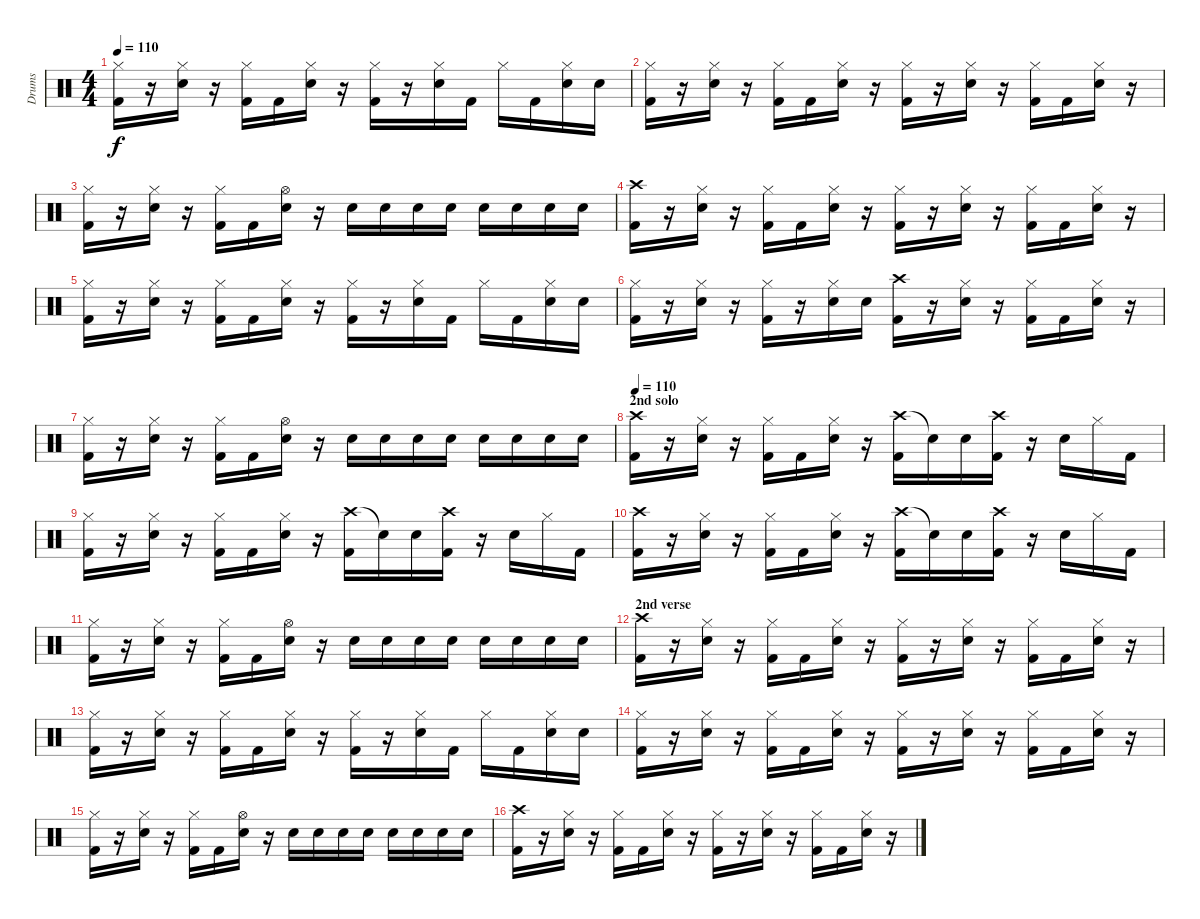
\track ("Drums" "Drums") {instrument percussion}
\staff {score}
\articulation defaults
\ts (4 4)
\tempo 110
\clef neutral
\ks c
("Hi-Hat (closed)" "Kick (hit) 2").16{dy f} r.16 ("Hi-Hat (closed)" "Electric Snare (hit)").16 r.16 ("Hi-Hat (closed)" "Kick (hit) 2").16 "Kick (hit) 2".16 ("Hi-Hat (closed)" "Electric Snare (hit)").16 r.16 ("Hi-Hat (closed)" "Kick (hit) 2").16 r.16 ("Hi-Hat (closed)" "Electric Snare (hit)").16 "Kick (hit) 2".16 "Hi-Hat (closed)".16 "Kick (hit) 2".16 ("Hi-Hat (closed)" "Electric Snare (hit)").16 "Electric Snare (hit)".16 |
("Hi-Hat (closed)" "Kick (hit) 2").16 r.16 ("Hi-Hat (closed)" "Electric Snare (hit)").16 r.16 ("Hi-Hat (closed)" "Kick (hit) 2").16 "Kick (hit) 2".16 ("Hi-Hat (closed)" "Electric Snare (hit)").16 r.16 ("Hi-Hat (closed)" "Kick (hit) 2").16 r.16 ("Hi-Hat (closed)" "Electric Snare (hit)").16 r.16 ("Hi-Hat (closed)" "Kick (hit) 2").16 "Kick (hit) 2".16 ("Hi-Hat (closed)" "Electric Snare (hit)").16 r.16 |
("Hi-Hat (closed)" "Kick (hit) 2").16 r.16 ("Hi-Hat (closed)" "Electric Snare (hit)").16 r.16 ("Hi-Hat (closed)" "Kick (hit) 2").16 "Kick (hit) 2".16 ("Hi-Hat (open)" "Electric Snare (hit)").16 r.16 "Electric Snare (hit)".16 "Electric Snare (hit)".16 "Electric Snare (hit)".16 "Electric Snare (hit)".16 "Electric Snare (hit)".16 "Electric Snare (hit)".16 "Electric Snare (hit)".16 "Electric Snare (hit)".16 |
("Crash high (hit)" "Kick (hit) 2").16 r.16 ("Hi-Hat (closed)" "Electric Snare (hit)").16 r.16 ("Hi-Hat (closed)" "Kick (hit) 2").16 "Kick (hit) 2".16 ("Hi-Hat (closed)" "Electric Snare (hit)").16 r.16 ("Hi-Hat (closed)" "Kick (hit) 2").16 r.16 ("Hi-Hat (closed)" "Electric Snare (hit)").16 r.16 ("Hi-Hat (closed)" "Kick (hit) 2").16 "Kick (hit) 2".16 ("Hi-Hat (closed)" "Electric Snare (hit)").16 r.16 |
("Hi-Hat (closed)" "Kick (hit) 2").16 r.16 ("Hi-Hat (closed)" "Electric Snare (hit)").16 r.16 ("Hi-Hat (closed)" "Kick (hit) 2").16 "Kick (hit) 2".16 ("Hi-Hat (closed)" "Electric Snare (hit)").16 r.16 ("Hi-Hat (closed)" "Kick (hit) 2").16 r.16 ("Hi-Hat (closed)" "Electric Snare (hit)").16 "Kick (hit) 2".16 "Hi-Hat (closed)".16 "Kick (hit) 2".16 ("Hi-Hat (closed)" "Electric Snare (hit)").16 "Electric Snare (hit)".16 |
("Hi-Hat (closed)" "Kick (hit) 2").16 r.16 ("Hi-Hat (closed)" "Electric Snare (hit)").16 r.16 ("Hi-Hat (closed)" "Kick (hit) 2").16 r.16 ("Hi-Hat (closed)" "Electric Snare (hit)").16 "Electric Snare (hit)".16 ("Crash high (hit)" "Kick (hit) 2").16 r.16 ("Hi-Hat (closed)" "Electric Snare (hit)").16 r.16 ("Hi-Hat (closed)" "Kick (hit) 2").16 "Kick (hit) 2".16 ("Hi-Hat (closed)" "Electric Snare (hit)").16 r.16 |
("Hi-Hat (closed)" "Kick (hit) 2").16 r.16 ("Hi-Hat (closed)" "Electric Snare (hit)").16 r.16 ("Hi-Hat (closed)" "Kick (hit) 2").16 "Kick (hit) 2".16 ("Hi-Hat (open)" "Electric Snare (hit)").16 r.16 "Electric Snare (hit)".16 "Electric Snare (hit)".16 "Electric Snare (hit)".16 "Electric Snare (hit)".16 "Electric Snare (hit)".16 "Electric Snare (hit)".16 "Electric Snare (hit)".16 "Electric Snare (hit)".16 |
\section ("" "2nd solo")
\tempo 110
("Crash high (hit)" "Kick (hit) 2").16 r.16 ("Hi-Hat (closed)" "Electric Snare (hit)").16 r.16 ("Hi-Hat (closed)" "Kick (hit) 2").16 "Kick (hit) 2".16 ("Hi-Hat (closed)" "Electric Snare (hit)").16 r.16 ("Crash high (hit)" "Kick (hit) 2").16 "Snare (hit)"{t}.16 "Electric Snare (hit)".16 ("Crash high (hit)" "Kick (hit) 2").16 r.16 "Electric Snare (hit)".16 "Hi-Hat (closed)".16 "Kick (hit) 2".16 |
("Hi-Hat (closed)" "Kick (hit) 2").16 r.16 ("Hi-Hat (closed)" "Electric Snare (hit)").16 r.16 ("Hi-Hat (closed)" "Kick (hit) 2").16 "Kick (hit) 2".16 ("Hi-Hat (closed)" "Electric Snare (hit)").16 r.16 ("Crash high (hit)" "Kick (hit) 2").16 "Snare (hit)"{t}.16 "Electric Snare (hit)".16 ("Crash high (hit)" "Kick (hit) 2").16 r.16 "Electric Snare (hit)".16 "Hi-Hat (closed)".16 "Kick (hit) 2".16 |
("Crash high (hit)" "Kick (hit) 2").16 r.16 ("Hi-Hat (closed)" "Electric Snare (hit)").16 r.16 ("Hi-Hat (closed)" "Kick (hit) 2").16 "Kick (hit) 2".16 ("Hi-Hat (closed)" "Electric Snare (hit)").16 r.16 ("Crash high (hit)" "Kick (hit) 2").16 "Snare (hit)"{t}.16 "Electric Snare (hit)".16 ("Crash high (hit)" "Kick (hit) 2").16 r.16 "Electric Snare (hit)".16 "Hi-Hat (closed)".16 "Kick (hit) 2".16 |
("Hi-Hat (closed)" "Kick (hit) 2").16 r.16 ("Hi-Hat (closed)" "Electric Snare (hit)").16 r.16 ("Hi-Hat (closed)" "Kick (hit) 2").16 "Kick (hit) 2".16 ("Hi-Hat (open)" "Electric Snare (hit)").16 r.16 "Electric Snare (hit)".16 "Electric Snare (hit)".16 "Electric Snare (hit)".16 "Electric Snare (hit)".16 "Electric Snare (hit)".16 "Electric Snare (hit)".16 "Electric Snare (hit)".16 "Electric Snare (hit)".16 |
\section ("" "2nd verse")
("Crash high (hit)" "Kick (hit) 2").16 r.16 ("Hi-Hat (closed)" "Electric Snare (hit)").16 r.16 ("Hi-Hat (closed)" "Kick (hit) 2").16 "Kick (hit) 2".16 ("Hi-Hat (closed)" "Electric Snare (hit)").16 r.16 ("Hi-Hat (closed)" "Kick (hit) 2").16 r.16 ("Hi-Hat (closed)" "Electric Snare (hit)").16 r.16 ("Hi-Hat (closed)" "Kick (hit) 2").16 "Kick (hit) 2".16 ("Hi-Hat (closed)" "Electric Snare (hit)").16 r.16 |
("Hi-Hat (closed)" "Kick (hit) 2").16 r.16 ("Hi-Hat (closed)" "Electric Snare (hit)").16 r.16 ("Hi-Hat (closed)" "Kick (hit) 2").16 "Kick (hit) 2".16 ("Hi-Hat (closed)" "Electric Snare (hit)").16 r.16 ("Hi-Hat (closed)" "Kick (hit) 2").16 r.16 ("Hi-Hat (closed)" "Electric Snare (hit)").16 "Kick (hit) 2".16 "Hi-Hat (closed)".16 "Kick (hit) 2".16 ("Hi-Hat (closed)" "Electric Snare (hit)").16 "Electric Snare (hit)".16 |
("Hi-Hat (closed)" "Kick (hit) 2").16 r.16 ("Hi-Hat (closed)" "Electric Snare (hit)").16 r.16 ("Hi-Hat (closed)" "Kick (hit) 2").16 "Kick (hit) 2".16 ("Hi-Hat (closed)" "Electric Snare (hit)").16 r.16 ("Hi-Hat (closed)" "Kick (hit) 2").16 r.16 ("Hi-Hat (closed)" "Electric Snare (hit)").16 r.16 ("Hi-Hat (closed)" "Kick (hit) 2").16 "Kick (hit) 2".16 ("Hi-Hat (closed)" "Electric Snare (hit)").16 r.16 |
("Hi-Hat (closed)" "Kick (hit) 2").16 r.16 ("Hi-Hat (closed)" "Electric Snare (hit)").16 r.16 ("Hi-Hat (closed)" "Kick (hit) 2").16 "Kick (hit) 2".16 ("Hi-Hat (open)" "Electric Snare (hit)").16 r.16 "Electric Snare (hit)".16 "Electric Snare (hit)".16 "Electric Snare (hit)".16 "Electric Snare (hit)".16 "Electric Snare (hit)".16 "Electric Snare (hit)".16 "Electric Snare (hit)".16 "Electric Snare (hit)".16 |
("Crash high (hit)" "Kick (hit) 2").16 r.16 ("Hi-Hat (closed)" "Electric Snare (hit)").16 r.16 ("Hi-Hat (closed)" "Kick (hit) 2").16 "Kick (hit) 2".16 ("Hi-Hat (closed)" "Electric Snare (hit)").16 r.16 ("Hi-Hat (closed)" "Kick (hit) 2").16 r.16 ("Hi-Hat (closed)" "Electric Snare (hit)").16 r.16 ("Hi-Hat (closed)" "Kick (hit) 2").16 "Kick (hit) 2".16 ("Hi-Hat (closed)" "Electric Snare (hit)").16 r.16
